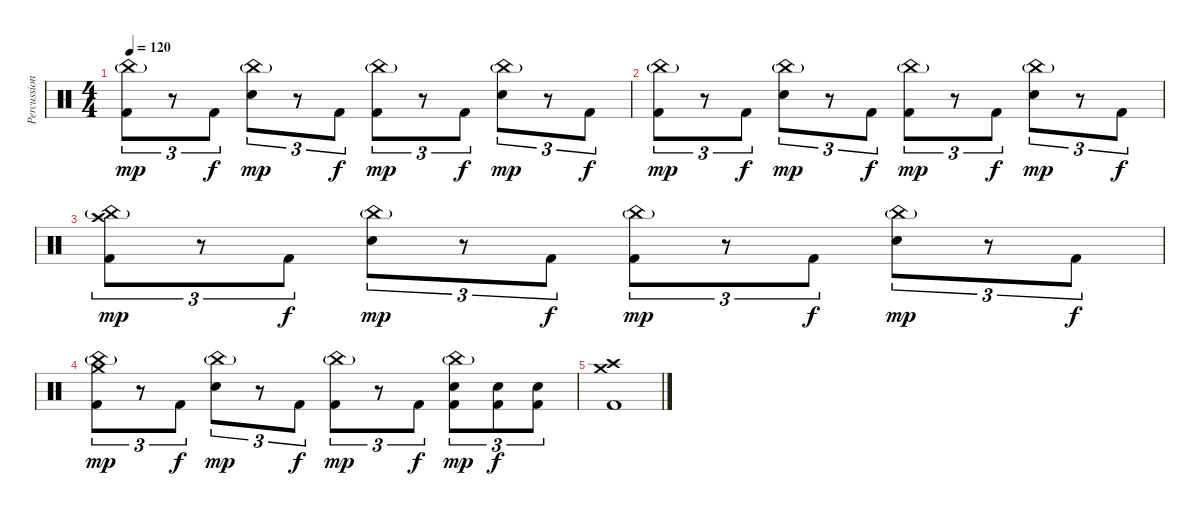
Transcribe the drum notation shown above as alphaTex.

\track ("Percussion" "Percussion") {instrument percussion}
\staff {score}
\articulation defaults
\ts (4 4)
\tempo 120
\clef neutral
\ks c
("China (hit)"{g} "Kick (hit) 2").8{tu (3 2) dy mp} r.8{tu (3 2)} "Kick (hit) 2".8{tu (3 2) dy f} ("China (hit)"{g} "Snare (hit) 2").8{tu (3 2) dy mp} r.8{tu (3 2)} "Kick (hit) 2".8{tu (3 2) dy f} ("China (hit)"{g} "Kick (hit) 2").8{tu (3 2) dy mp} r.8{tu (3 2)} "Kick (hit) 2".8{tu (3 2) dy f} ("China (hit)"{g} "Snare (hit) 2").8{tu (3 2) dy mp} r.8{tu (3 2)} "Kick (hit) 2".8{tu (3 2) dy f} |
("China (hit)"{g} "Kick (hit) 2").8{tu (3 2) dy mp} r.8{tu (3 2)} "Kick (hit) 2".8{tu (3 2) dy f} ("China (hit)"{g} "Snare (hit) 2").8{tu (3 2) dy mp} r.8{tu (3 2)} "Kick (hit) 2".8{tu (3 2) dy f} ("China (hit)"{g} "Kick (hit) 2").8{tu (3 2) dy mp} r.8{tu (3 2)} "Kick (hit) 2".8{tu (3 2) dy f} ("China (hit)"{g} "Snare (hit) 2").8{tu (3 2) dy mp} r.8{tu (3 2)} "Kick (hit) 2".8{tu (3 2) dy f} |
("Crash high (hit)" "China (hit)"{g} "Kick (hit) 2").8{tu (3 2) dy mp} r.8{tu (3 2)} "Kick (hit) 2".8{tu (3 2) dy f} ("China (hit)"{g} "Snare (hit) 2").8{tu (3 2) dy mp} r.8{tu (3 2)} "Kick (hit) 2".8{tu (3 2) dy f} ("China (hit)"{g} "Kick (hit) 2").8{tu (3 2) dy mp} r.8{tu (3 2)} "Kick (hit) 2".8{tu (3 2) dy f} ("China (hit)"{g} "Snare (hit) 2").8{tu (3 2) dy mp} r.8{tu (3 2)} "Kick (hit) 2".8{tu (3 2) dy f} |
("Crash medium (hit)" "China (hit)"{g} "Kick (hit) 2").8{tu (3 2) dy mp} r.8{tu (3 2)} "Kick (hit) 2".8{tu (3 2) dy f} ("China (hit)"{g} "Snare (hit) 2").8{tu (3 2) dy mp} r.8{tu (3 2)} "Kick (hit) 2".8{tu (3 2) dy f} ("China (hit)"{g} "Kick (hit) 2").8{tu (3 2) dy mp} r.8{tu (3 2)} "Kick (hit) 2".8{tu (3 2) dy f} ("China (hit)"{g} "Snare (hit) 2" "Kick (hit) 2").8{tu (3 2) dy mp} ("Snare (hit) 2" "Kick (hit) 2").8{tu (3 2) dy f} ("Snare (hit) 2" "Kick (hit) 2").8{tu (3 2)} |
("Crash medium (hit)" "Crash high (hit)" "Kick (hit) 2").1
